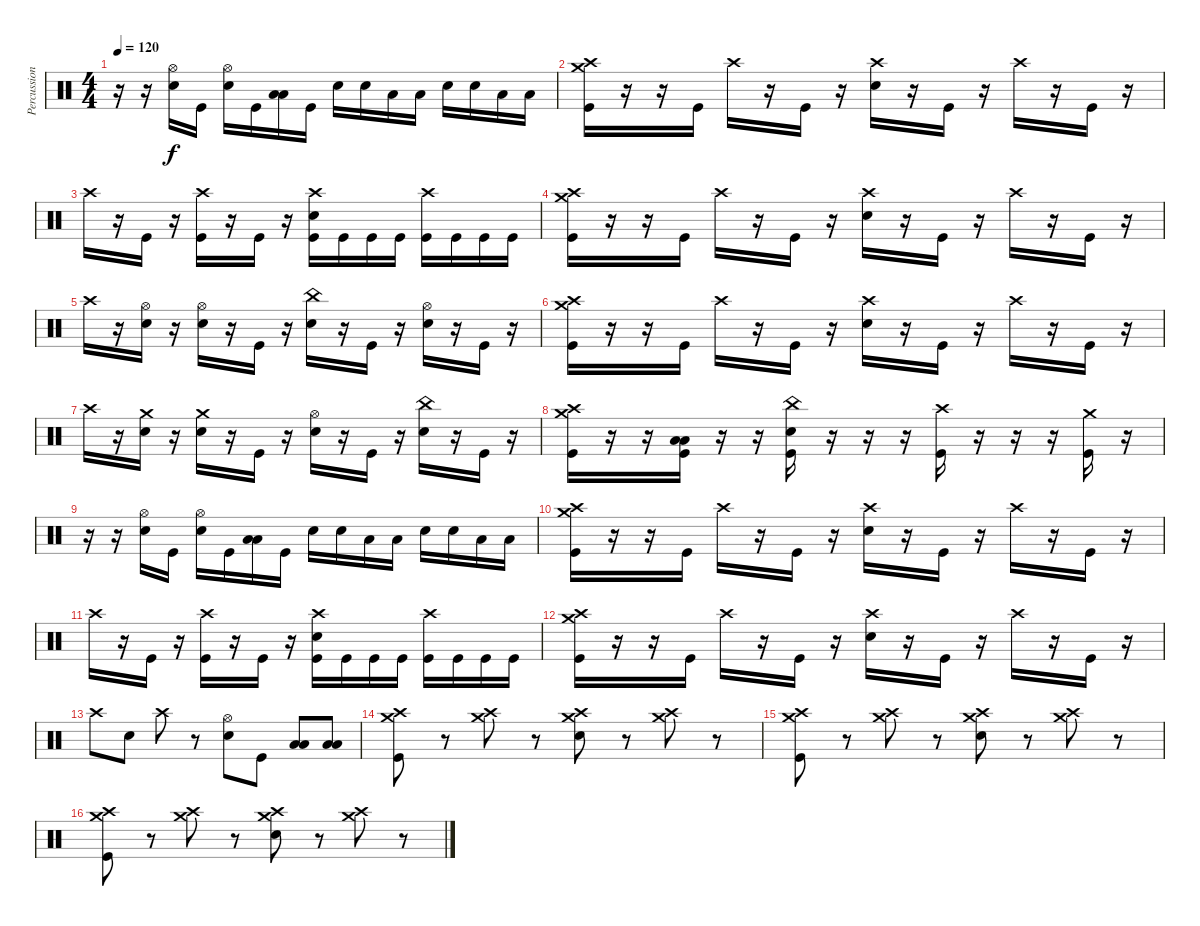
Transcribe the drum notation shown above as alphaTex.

\track ("Percussion" "Percussion") {instrument percussion}
\staff {score}
\articulation defaults
\ts (4 4)
\tempo 120
\clef neutral
\ks c
r.16{dy f} r.16 ("Hi-Hat (open)" "Snare (hit) 2").16 "Kick (hit)".16 ("Hi-Hat (open)" "Snare (hit) 2").16 "Kick (hit)".16 ("Low Tom (hit)" "Low Floor Tom (hit)").16 "Kick (hit)".16 "Snare (hit) 2".16 "Snare (hit) 2".16 "Low Tom (hit)".16 "Low Tom (hit)".16 "Snare (hit) 2".16 "Snare (hit) 2".16 "Low Floor Tom (hit)".16 "Low Floor Tom (hit)".16 |
("Crash medium (hit)" "Crash high (hit)" "Kick (hit)").16 r.16 r.16 "Kick (hit)".16 "Crash high (hit)".16 r.16 "Kick (hit)".16 r.16 ("Crash high (hit)" "Snare (hit) 2").16 r.16 "Kick (hit)".16 r.16 "Crash high (hit)".16 r.16 "Kick (hit)".16 r.16 |
"Crash high (hit)".16 r.16 "Kick (hit)".16 r.16 ("Crash high (hit)" "Kick (hit)").16 r.16 "Kick (hit)".16 r.16 ("Crash high (hit)" "Snare (hit) 2" "Kick (hit)").16 "Kick (hit)".16 "Kick (hit)".16 "Kick (hit)".16 ("Crash high (hit)" "Kick (hit)").16 "Kick (hit)".16 "Kick (hit)".16 "Kick (hit)".16 |
("Crash medium (hit)" "Crash high (hit)" "Kick (hit)").16 r.16 r.16 "Kick (hit)".16 "Crash high (hit)".16 r.16 "Kick (hit)".16 r.16 ("Crash high (hit)" "Snare (hit) 2").16 r.16 "Kick (hit)".16 r.16 "Crash high (hit)".16 r.16 "Kick (hit)".16 r.16 |
"Crash high (hit)".16 r.16 ("Hi-Hat (open)" "Snare (hit) 2").16 r.16 ("Hi-Hat (open)" "Snare (hit) 2").16 r.16 "Kick (hit)".16 r.16 ("China (hit)" "Snare (hit) 2").16 r.16 "Kick (hit)".16 r.16 ("Hi-Hat (open)" "Snare (hit) 2").16 r.16 "Kick (hit)".16 r.16 |
("Crash medium (hit)" "Crash high (hit)" "Kick (hit)").16 r.16 r.16 "Kick (hit)".16 "Crash high (hit)".16 r.16 "Kick (hit)".16 r.16 ("Crash high (hit)" "Snare (hit) 2").16 r.16 "Kick (hit)".16 r.16 "Crash high (hit)".16 r.16 "Kick (hit)".16 r.16 |
"Crash high (hit)".16 r.16 ("Crash medium (hit)" "Snare (hit) 2").16 r.16 ("Crash medium (hit)" "Snare (hit) 2").16 r.16 "Kick (hit)".16 r.16 ("Hi-Hat (open)" "Snare (hit) 2").16 r.16 "Kick (hit)".16 r.16 ("China (hit)" "Snare (hit) 2").16 r.16 "Kick (hit)".16 r.16 |
("Crash medium (hit)" "Crash high (hit)" "Kick (hit)").16 r.16 r.16 ("Low Tom (hit)" "Low Floor Tom (hit)" "Kick (hit)").16 r.16 r.16 ("China (hit)" "Snare (hit) 2" "Kick (hit)").16 r.16 r.16 r.16 ("Crash high (hit)" "Kick (hit)").16 r.16 r.16 r.16 ("Crash medium (hit)" "Kick (hit)").16 r.16 |
r.16 r.16 ("Hi-Hat (open)" "Snare (hit) 2").16 "Kick (hit)".16 ("Hi-Hat (open)" "Snare (hit) 2").16 "Kick (hit)".16 ("Low Tom (hit)" "Low Floor Tom (hit)").16 "Kick (hit)".16 "Snare (hit) 2".16 "Snare (hit) 2".16 "Low Tom (hit)".16 "Low Tom (hit)".16 "Snare (hit) 2".16 "Snare (hit) 2".16 "Low Floor Tom (hit)".16 "Low Floor Tom (hit)".16 |
("Crash medium (hit)" "Crash high (hit)" "Kick (hit)").16 r.16 r.16 "Kick (hit)".16 "Crash high (hit)".16 r.16 "Kick (hit)".16 r.16 ("Crash high (hit)" "Snare (hit) 2").16 r.16 "Kick (hit)".16 r.16 "Crash high (hit)".16 r.16 "Kick (hit)".16 r.16 |
"Crash high (hit)".16 r.16 "Kick (hit)".16 r.16 ("Crash high (hit)" "Kick (hit)").16 r.16 "Kick (hit)".16 r.16 ("Crash high (hit)" "Snare (hit) 2" "Kick (hit)").16 "Kick (hit)".16 "Kick (hit)".16 "Kick (hit)".16 ("Crash high (hit)" "Kick (hit)").16 "Kick (hit)".16 "Kick (hit)".16 "Kick (hit)".16 |
("Crash medium (hit)" "Crash high (hit)" "Kick (hit)").16 r.16 r.16 "Kick (hit)".16 "Crash high (hit)".16 r.16 "Kick (hit)".16 r.16 ("Crash high (hit)" "Snare (hit) 2").16 r.16 "Kick (hit)".16 r.16 "Crash high (hit)".16 r.16 "Kick (hit)".16 r.16 |
"Crash high (hit)".8 "Snare (hit) 2".8 "Crash high (hit)".8 r.8 ("Hi-Hat (open)" "Snare (hit) 2").8 "Kick (hit)".8 ("Low Tom (hit)" "Low Floor Tom (hit)").8 ("Low Tom (hit)" "Low Floor Tom (hit)").8 |
("Crash medium (hit)" "Crash high (hit)" "Kick (hit)").8 r.8 ("Crash medium (hit)" "Crash high (hit)").8 r.8 ("Crash medium (hit)" "Crash high (hit)" "Snare (hit) 2").8 r.8 ("Crash medium (hit)" "Crash high (hit)").8 r.8 |
("Crash medium (hit)" "Crash high (hit)" "Kick (hit)").8 r.8 ("Crash medium (hit)" "Crash high (hit)").8 r.8 ("Crash medium (hit)" "Crash high (hit)" "Snare (hit) 2").8 r.8 ("Crash medium (hit)" "Crash high (hit)").8 r.8 |
("Crash medium (hit)" "Crash high (hit)" "Kick (hit)").8 r.8 ("Crash medium (hit)" "Crash high (hit)").8 r.8 ("Crash medium (hit)" "Crash high (hit)" "Snare (hit) 2").8 r.8 ("Crash medium (hit)" "Crash high (hit)").8 r.8
